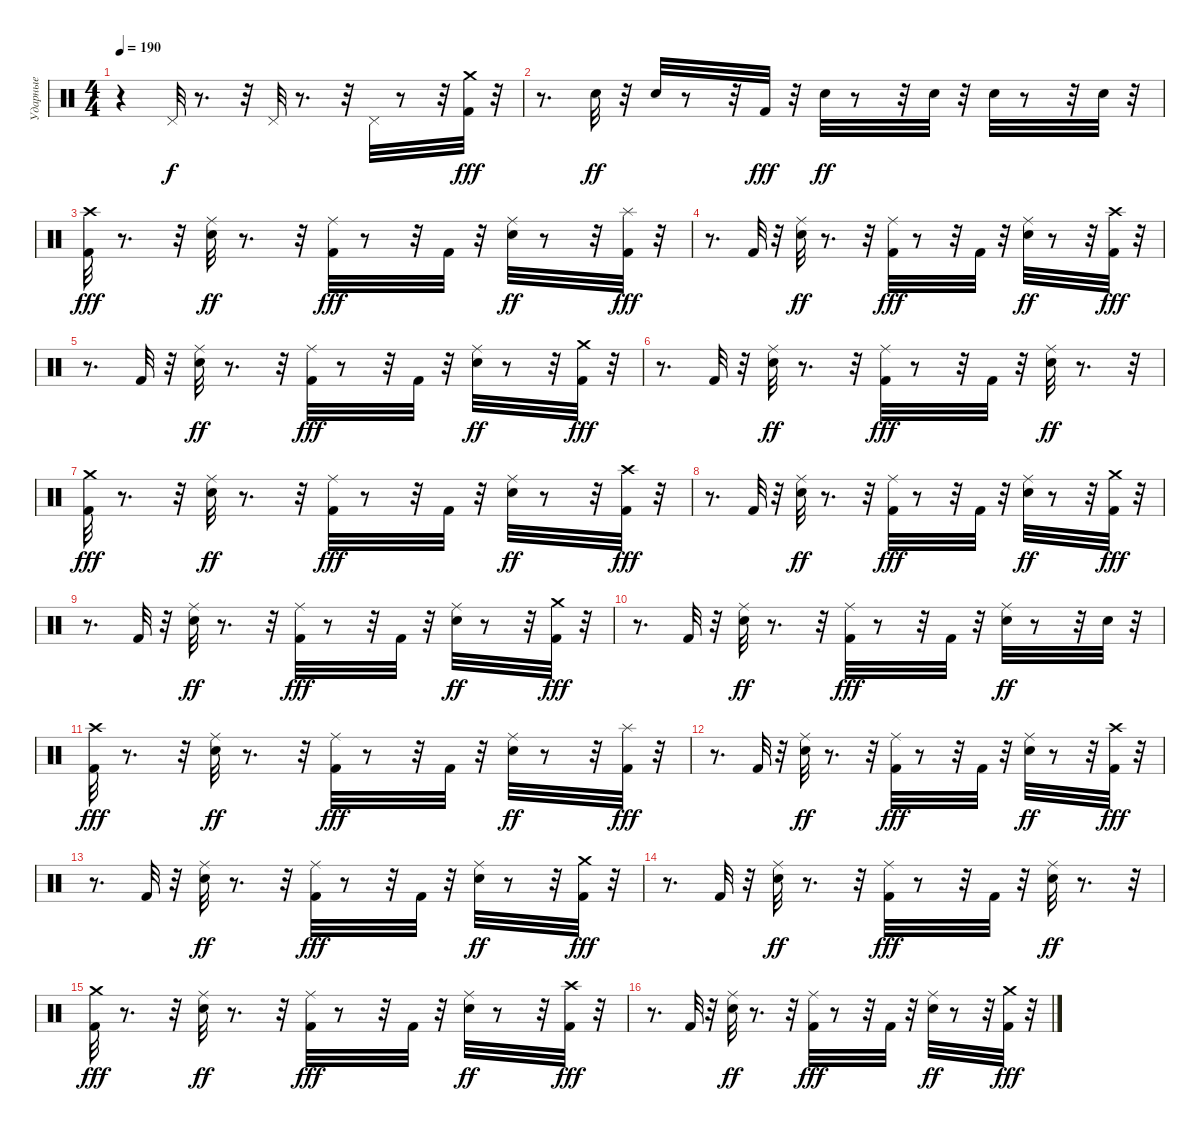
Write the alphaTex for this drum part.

\track ("Ударные" "Ударные") {instrument percussion}
\staff {score}
\articulation defaults
\ts (4 4)
\tempo 190
\clef neutral
\ks c
r.4{dy fff} "Pedal Hi-Hat (hit)".32{dy f} r.8{d} r.32 "Pedal Hi-Hat (hit)".32 r.8{d} r.32 "Pedal Hi-Hat (hit)".32 r.8 r.32 ("Crash medium (hit)" "Kick (hit) 2").32{dy fff} r.32 |
r.8{d} "Snare (hit) 2".32{dy ff} r.32 "Snare (hit) 2".32 r.8 r.32 "Kick (hit) 2".32{dy fff} r.32 "Snare (hit) 2".32{dy ff} r.8 r.32 "Snare (hit) 2".32 r.32 "Snare (hit) 2".32 r.8 r.32 "Snare (hit) 2".32 r.32 |
("Crash high (hit)" "Kick (hit) 2").32{dy fff} r.8{d} r.32 ("Ride (middle)" "Snare (hit) 2").32{dy ff} r.8{d} r.32 ("Ride (middle)" "Kick (hit) 2").32{dy fff} r.8 r.32 "Kick (hit) 2".32 r.32 ("Ride (middle)" "Snare (hit) 2").32{dy ff} r.8 r.32 ("Splash (hit)" "Kick (hit) 2").32{dy fff} r.32 |
r.8{d} "Kick (hit) 2".32 r.32 ("Ride (middle)" "Snare (hit) 2").32{dy ff} r.8{d} r.32 ("Kick (hit) 2" "Ride (middle)").32{dy fff} r.8 r.32 "Kick (hit) 2".32 r.32 ("Snare (hit) 2" "Ride (middle)").32{dy ff} r.8 r.32 ("Crash high (hit)" "Kick (hit) 2").32{dy fff} r.32 |
r.8{d} "Kick (hit) 2".32 r.32 ("Ride (middle)" "Snare (hit) 2").32{dy ff} r.8{d} r.32 ("Kick (hit) 2" "Ride (middle)").32{dy fff} r.8 r.32 "Kick (hit) 2".32 r.32 ("Snare (hit) 2" "Ride (middle)").32{dy ff} r.8 r.32 ("Crash medium (hit)" "Kick (hit) 2").32{dy fff} r.32 |
r.8{d} "Kick (hit) 2".32 r.32 ("Ride (middle)" "Snare (hit) 2").32{dy ff} r.8{d} r.32 ("Ride (middle)" "Kick (hit) 2").32{dy fff} r.8 r.32 "Kick (hit) 2".32 r.32 ("Ride (middle)" "Snare (hit) 2").32{dy ff} r.8{d} r.32 |
("Crash medium (hit)" "Kick (hit) 2").32{dy fff} r.8{d} r.32 ("Ride (middle)" "Snare (hit) 2").32{dy ff} r.8{d} r.32 ("Ride (middle)" "Kick (hit) 2").32{dy fff} r.8 r.32 "Kick (hit) 2".32 r.32 ("Ride (middle)" "Snare (hit) 2").32{dy ff} r.8 r.32 ("Crash high (hit)" "Kick (hit) 2").32{dy fff} r.32 |
r.8{d} "Kick (hit) 2".32 r.32 ("Ride (middle)" "Snare (hit) 2").32{dy ff} r.8{d} r.32 ("Kick (hit) 2" "Ride (middle)").32{dy fff} r.8 r.32 "Kick (hit) 2".32 r.32 ("Snare (hit) 2" "Ride (middle)").32{dy ff} r.8 r.32 ("Kick (hit) 2" "Crash medium (hit)").32{dy fff} r.32 |
r.8{d} "Kick (hit) 2".32 r.32 ("Ride (middle)" "Snare (hit) 2").32{dy ff} r.8{d} r.32 ("Kick (hit) 2" "Ride (middle)").32{dy fff} r.8 r.32 "Kick (hit) 2".32 r.32 ("Snare (hit) 2" "Ride (middle)").32{dy ff} r.8 r.32 ("Crash medium (hit)" "Kick (hit) 2").32{dy fff} r.32 |
r.8{d} "Kick (hit) 2".32 r.32 ("Ride (middle)" "Snare (hit) 2").32{dy ff} r.8{d} r.32 ("Ride (middle)" "Kick (hit) 2").32{dy fff} r.8 r.32 "Kick (hit) 2".32 r.32 ("Ride (middle)" "Snare (hit) 2").32{dy ff} r.8 r.32 "Snare (hit) 2".32 r.32 |
("Crash high (hit)" "Kick (hit) 2").32{dy fff} r.8{d} r.32 ("Ride (middle)" "Snare (hit) 2").32{dy ff} r.8{d} r.32 ("Ride (middle)" "Kick (hit) 2").32{dy fff} r.8 r.32 "Kick (hit) 2".32 r.32 ("Ride (middle)" "Snare (hit) 2").32{dy ff} r.8 r.32 ("Splash (hit)" "Kick (hit) 2").32{dy fff} r.32 |
r.8{d} "Kick (hit) 2".32 r.32 ("Ride (middle)" "Snare (hit) 2").32{dy ff} r.8{d} r.32 ("Kick (hit) 2" "Ride (middle)").32{dy fff} r.8 r.32 "Kick (hit) 2".32 r.32 ("Snare (hit) 2" "Ride (middle)").32{dy ff} r.8 r.32 ("Crash high (hit)" "Kick (hit) 2").32{dy fff} r.32 |
r.8{d} "Kick (hit) 2".32 r.32 ("Ride (middle)" "Snare (hit) 2").32{dy ff} r.8{d} r.32 ("Kick (hit) 2" "Ride (middle)").32{dy fff} r.8 r.32 "Kick (hit) 2".32 r.32 ("Snare (hit) 2" "Ride (middle)").32{dy ff} r.8 r.32 ("Crash medium (hit)" "Kick (hit) 2").32{dy fff} r.32 |
r.8{d} "Kick (hit) 2".32 r.32 ("Ride (middle)" "Snare (hit) 2").32{dy ff} r.8{d} r.32 ("Ride (middle)" "Kick (hit) 2").32{dy fff} r.8 r.32 "Kick (hit) 2".32 r.32 ("Ride (middle)" "Snare (hit) 2").32{dy ff} r.8{d} r.32 |
("Crash medium (hit)" "Kick (hit) 2").32{dy fff} r.8{d} r.32 ("Ride (middle)" "Snare (hit) 2").32{dy ff} r.8{d} r.32 ("Ride (middle)" "Kick (hit) 2").32{dy fff} r.8 r.32 "Kick (hit) 2".32 r.32 ("Ride (middle)" "Snare (hit) 2").32{dy ff} r.8 r.32 ("Crash high (hit)" "Kick (hit) 2").32{dy fff} r.32 |
r.8{d} "Kick (hit) 2".32 r.32 ("Ride (middle)" "Snare (hit) 2").32{dy ff} r.8{d} r.32 ("Kick (hit) 2" "Ride (middle)").32{dy fff} r.8 r.32 "Kick (hit) 2".32 r.32 ("Snare (hit) 2" "Ride (middle)").32{dy ff} r.8 r.32 ("Kick (hit) 2" "Crash medium (hit)").32{dy fff} r.32
